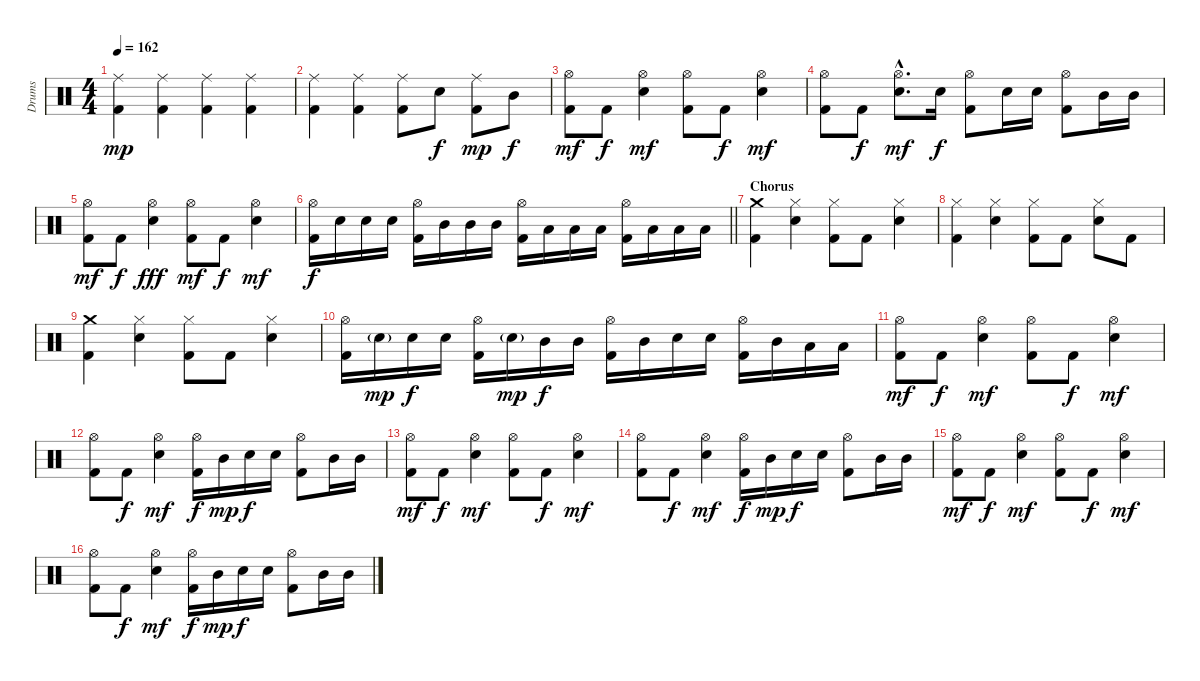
\track ("Drums" "Drums") {instrument percussion}
\staff {score}
\articulation defaults
\ts (4 4)
\tempo 162
\clef neutral
\ks c
("Ride (middle)" "Kick (hit) 2").4{dy mp} ("Ride (middle)" "Kick (hit) 2").4 ("Ride (middle)" "Kick (hit) 2").4 ("Ride (middle)" "Kick (hit) 2").4 |
("Ride (middle)" "Kick (hit) 2").4 ("Ride (middle)" "Kick (hit) 2").4 ("Ride (middle)" "Kick (hit) 2").8 "Electric Snare (hit)".8{dy f} ("Ride (middle)" "Kick (hit) 2").8{dy mp} "Mid Tom (hit)".8{dy f} |
("Hi-Hat (open)" "Kick (hit) 2").8{dy mf} "Kick (hit) 2".8{dy f} ("Hi-Hat (open)" "Electric Snare (hit)").4{dy mf} ("Hi-Hat (open)" "Kick (hit) 2").8 "Kick (hit) 2".8{dy f} ("Hi-Hat (open)" "Electric Snare (hit)").4{dy mf} |
("Hi-Hat (open)" "Kick (hit) 2").8 "Kick (hit) 2".8{dy f} ("Hi-Hat (open)"{hac} "Electric Snare (hit)"{hac}).8{d dy mf} "Electric Snare (hit)".16{dy f} ("Hi-Hat (open)" "Kick (hit) 2").8 "Electric Snare (hit)".16 "Electric Snare (hit)".16 ("Hi-Hat (open)" "Kick (hit) 2").8 "Mid Tom (hit)".16 "Mid Tom (hit)".16 |
("Hi-Hat (open)" "Kick (hit) 2").8{dy mf} "Kick (hit) 2".8{dy f} ("Hi-Hat (open)" "Electric Snare (hit)").4{dy fff} ("Hi-Hat (open)" "Kick (hit) 2").8{dy mf} "Kick (hit) 2".8{dy f} ("Hi-Hat (open)" "Electric Snare (hit)").4{dy mf} |
\barLineRight lightlight
("Hi-Hat (open)" "Kick (hit) 2").16{dy f} "Electric Snare (hit)".16 "Electric Snare (hit)".16 "Electric Snare (hit)".16 ("Hi-Hat (open)" "Kick (hit) 2").16 "Mid Tom (hit)".16 "Mid Tom (hit)".16 "Mid Tom (hit)".16 ("Hi-Hat (open)" "Kick (hit) 2").16 "Low Tom (hit)".16 "Low Tom (hit)".16 "Low Tom (hit)".16 ("Hi-Hat (open)" "Kick (hit) 2").16 "Low Floor Tom (hit)".16 "Low Floor Tom (hit)".16 "Low Floor Tom (hit)".16 |
\section ("" "Chorus")
("Crash medium (hit)" "Kick (hit) 2").4 ("Hi-Hat (closed)" "Electric Snare (hit)").4 ("Hi-Hat (closed)" "Kick (hit) 2").8 "Kick (hit) 2".8 ("Hi-Hat (closed)" "Electric Snare (hit)").4 |
("Hi-Hat (closed)" "Kick (hit) 2").4 ("Hi-Hat (closed)" "Electric Snare (hit)").4 ("Hi-Hat (closed)" "Kick (hit) 2").8 "Kick (hit) 2".8 ("Hi-Hat (closed)" "Electric Snare (hit)").8 "Kick (hit) 2".8 |
("Crash medium (hit)" "Kick (hit) 2").4 ("Hi-Hat (closed)" "Electric Snare (hit)").4 ("Hi-Hat (closed)" "Kick (hit) 2").8 "Kick (hit) 2".8 ("Hi-Hat (closed)" "Electric Snare (hit)").4 |
("Hi-Hat (open)" "Kick (hit) 2").16 "Electric Snare (hit)"{g}.16{dy mp} "Electric Snare (hit)".16{dy f} "Electric Snare (hit)".16 ("Hi-Hat (open)" "Kick (hit) 2").16 "Electric Snare (hit)"{g}.16{dy mp} "Mid Tom (hit)".16{dy f} "Mid Tom (hit)".16 ("Hi-Hat (open)" "Kick (hit) 2").16 "Mid Tom (hit)".16 "Electric Snare (hit)".16 "Electric Snare (hit)".16 ("Hi-Hat (open)" "Kick (hit) 2").16 "Mid Tom (hit)".16 "Low Tom (hit)".16 "Low Floor Tom (hit)".16 |
("Hi-Hat (open)" "Kick (hit) 2").8{dy mf} "Kick (hit) 2".8{dy f} ("Hi-Hat (open)" "Electric Snare (hit)").4{dy mf} ("Hi-Hat (open)" "Kick (hit) 2").8 "Kick (hit) 2".8{dy f} ("Hi-Hat (open)" "Electric Snare (hit)").4{dy mf} |
("Hi-Hat (open)" "Kick (hit) 2").8 "Kick (hit) 2".8{dy f} ("Hi-Hat (open)" "Electric Snare (hit)").4{dy mf} ("Hi-Hat (open)" "Kick (hit) 2").16{dy f} "Mid Tom (hit)".16{dy mp} "Electric Snare (hit)".16{dy f} "Electric Snare (hit)".16 ("Hi-Hat (open)" "Kick (hit) 2").8 "Mid Tom (hit)".16 "Mid Tom (hit)".16 |
("Hi-Hat (open)" "Kick (hit) 2").8{dy mf} "Kick (hit) 2".8{dy f} ("Hi-Hat (open)" "Electric Snare (hit)").4{dy mf} ("Hi-Hat (open)" "Kick (hit) 2").8 "Kick (hit) 2".8{dy f} ("Hi-Hat (open)" "Electric Snare (hit)").4{dy mf} |
("Hi-Hat (open)" "Kick (hit) 2").8 "Kick (hit) 2".8{dy f} ("Hi-Hat (open)" "Electric Snare (hit)").4{dy mf} ("Hi-Hat (open)" "Kick (hit) 2").16{dy f} "Mid Tom (hit)".16{dy mp} "Electric Snare (hit)".16{dy f} "Electric Snare (hit)".16 ("Hi-Hat (open)" "Kick (hit) 2").8 "Mid Tom (hit)".16 "Mid Tom (hit)".16 |
("Hi-Hat (open)" "Kick (hit) 2").8{dy mf} "Kick (hit) 2".8{dy f} ("Hi-Hat (open)" "Electric Snare (hit)").4{dy mf} ("Hi-Hat (open)" "Kick (hit) 2").8 "Kick (hit) 2".8{dy f} ("Hi-Hat (open)" "Electric Snare (hit)").4{dy mf} |
("Hi-Hat (open)" "Kick (hit) 2").8 "Kick (hit) 2".8{dy f} ("Hi-Hat (open)" "Electric Snare (hit)").4{dy mf} ("Hi-Hat (open)" "Kick (hit) 2").16{dy f} "Mid Tom (hit)".16{dy mp} "Electric Snare (hit)".16{dy f} "Electric Snare (hit)".16 ("Hi-Hat (open)" "Kick (hit) 2").8 "Mid Tom (hit)".16 "Mid Tom (hit)".16
